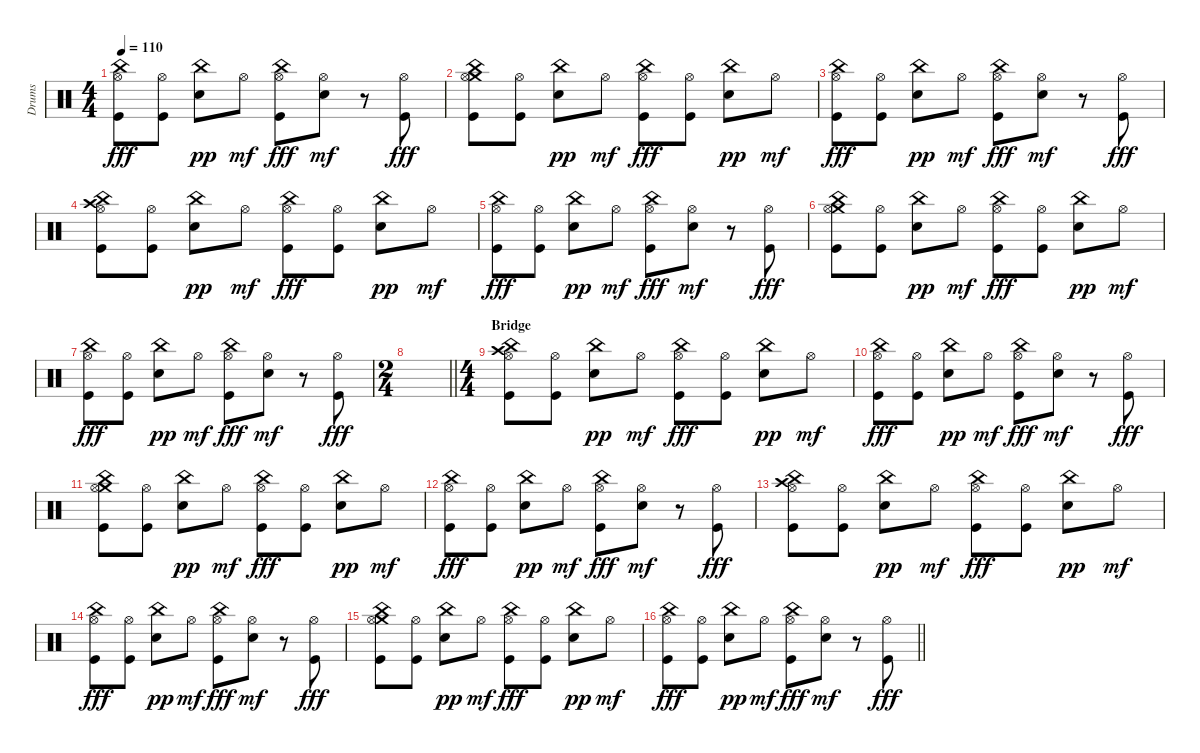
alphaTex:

\track ("Drums" "Drums") {instrument percussion}
\staff {score}
\articulation defaults
\ts (4 4)
\tempo 110
\clef neutral
\ks c
("Hi-Hat (open)" "China (hit)" "Kick (hit)").8{dy fff} ("Hi-Hat (open)" "Kick (hit)").8 ("China (hit)" "Electric Snare (hit)").8{dy pp} "Hi-Hat (open)".8{dy mf} ("Hi-Hat (open)" "China (hit)" "Kick (hit)").8{dy fff} ("Hi-Hat (open)" "Electric Snare (hit)").8{dy mf} r.8 ("Hi-Hat (open)" "Kick (hit)").8{dy fff} |
("Crash medium (hit)" "Hi-Hat (open)" "China (hit)" "Kick (hit)").8 ("Hi-Hat (open)" "Kick (hit)").8 ("China (hit)" "Electric Snare (hit)").8{dy pp} "Hi-Hat (open)".8{dy mf} ("Hi-Hat (open)" "China (hit)" "Kick (hit)").8{dy fff} ("Hi-Hat (open)" "Kick (hit)").8 ("China (hit)" "Electric Snare (hit)").8{dy pp} "Hi-Hat (open)".8{dy mf} |
("Hi-Hat (open)" "China (hit)" "Kick (hit)").8{dy fff} ("Hi-Hat (open)" "Kick (hit)").8 ("China (hit)" "Electric Snare (hit)").8{dy pp} "Hi-Hat (open)".8{dy mf} ("Hi-Hat (open)" "China (hit)" "Kick (hit)").8{dy fff} ("Hi-Hat (open)" "Electric Snare (hit)").8{dy mf} r.8 ("Hi-Hat (open)" "Kick (hit)").8{dy fff} |
("Crash high (hit)" "Hi-Hat (open)" "China (hit)" "Kick (hit)").8 ("Hi-Hat (open)" "Kick (hit)").8 ("China (hit)" "Electric Snare (hit)").8{dy pp} "Hi-Hat (open)".8{dy mf} ("Hi-Hat (open)" "China (hit)" "Kick (hit)").8{dy fff} ("Hi-Hat (open)" "Kick (hit)").8 ("China (hit)" "Electric Snare (hit)").8{dy pp} "Hi-Hat (open)".8{dy mf} |
("Hi-Hat (open)" "China (hit)" "Kick (hit)").8{dy fff} ("Hi-Hat (open)" "Kick (hit)").8 ("China (hit)" "Electric Snare (hit)").8{dy pp} "Hi-Hat (open)".8{dy mf} ("Hi-Hat (open)" "China (hit)" "Kick (hit)").8{dy fff} ("Hi-Hat (open)" "Electric Snare (hit)").8{dy mf} r.8 ("Hi-Hat (open)" "Kick (hit)").8{dy fff} |
("Crash medium (hit)" "Hi-Hat (open)" "China (hit)" "Kick (hit)").8 ("Hi-Hat (open)" "Kick (hit)").8 ("China (hit)" "Electric Snare (hit)").8{dy pp} "Hi-Hat (open)".8{dy mf} ("Hi-Hat (open)" "China (hit)" "Kick (hit)").8{dy fff} ("Hi-Hat (open)" "Kick (hit)").8 ("China (hit)" "Electric Snare (hit)").8{dy pp} "Hi-Hat (open)".8{dy mf} |
("Hi-Hat (open)" "China (hit)" "Kick (hit)").8{dy fff} ("Hi-Hat (open)" "Kick (hit)").8 ("China (hit)" "Electric Snare (hit)").8{dy pp} "Hi-Hat (open)".8{dy mf} ("Hi-Hat (open)" "China (hit)" "Kick (hit)").8{dy fff} ("Hi-Hat (open)" "Electric Snare (hit)").8{dy mf} r.8 ("Hi-Hat (open)" "Kick (hit)").8{dy fff} |
\ts (2 4)
\barLineRight lightlight
|
\ts (4 4)
\section ("" "Bridge")
("Crash high (hit)" "Hi-Hat (open)" "China (hit)" "Kick (hit)").8 ("Hi-Hat (open)" "Kick (hit)").8 ("China (hit)" "Electric Snare (hit)").8{dy pp} "Hi-Hat (open)".8{dy mf} ("Hi-Hat (open)" "China (hit)" "Kick (hit)").8{dy fff} ("Hi-Hat (open)" "Kick (hit)").8 ("China (hit)" "Electric Snare (hit)").8{dy pp} "Hi-Hat (open)".8{dy mf} |
("Hi-Hat (open)" "China (hit)" "Kick (hit)").8{dy fff} ("Hi-Hat (open)" "Kick (hit)").8 ("China (hit)" "Electric Snare (hit)").8{dy pp} "Hi-Hat (open)".8{dy mf} ("Hi-Hat (open)" "China (hit)" "Kick (hit)").8{dy fff} ("Hi-Hat (open)" "Electric Snare (hit)").8{dy mf} r.8 ("Hi-Hat (open)" "Kick (hit)").8{dy fff} |
("Crash medium (hit)" "Hi-Hat (open)" "China (hit)" "Kick (hit)").8 ("Hi-Hat (open)" "Kick (hit)").8 ("China (hit)" "Electric Snare (hit)").8{dy pp} "Hi-Hat (open)".8{dy mf} ("Hi-Hat (open)" "China (hit)" "Kick (hit)").8{dy fff} ("Hi-Hat (open)" "Kick (hit)").8 ("China (hit)" "Electric Snare (hit)").8{dy pp} "Hi-Hat (open)".8{dy mf} |
("Hi-Hat (open)" "China (hit)" "Kick (hit)").8{dy fff} ("Hi-Hat (open)" "Kick (hit)").8 ("China (hit)" "Electric Snare (hit)").8{dy pp} "Hi-Hat (open)".8{dy mf} ("Hi-Hat (open)" "China (hit)" "Kick (hit)").8{dy fff} ("Hi-Hat (open)" "Electric Snare (hit)").8{dy mf} r.8 ("Hi-Hat (open)" "Kick (hit)").8{dy fff} |
("Crash high (hit)" "Hi-Hat (open)" "China (hit)" "Kick (hit)").8 ("Hi-Hat (open)" "Kick (hit)").8 ("China (hit)" "Electric Snare (hit)").8{dy pp} "Hi-Hat (open)".8{dy mf} ("Hi-Hat (open)" "China (hit)" "Kick (hit)").8{dy fff} ("Hi-Hat (open)" "Kick (hit)").8 ("China (hit)" "Electric Snare (hit)").8{dy pp} "Hi-Hat (open)".8{dy mf} |
("Hi-Hat (open)" "China (hit)" "Kick (hit)").8{dy fff} ("Hi-Hat (open)" "Kick (hit)").8 ("China (hit)" "Electric Snare (hit)").8{dy pp} "Hi-Hat (open)".8{dy mf} ("Hi-Hat (open)" "China (hit)" "Kick (hit)").8{dy fff} ("Hi-Hat (open)" "Electric Snare (hit)").8{dy mf} r.8 ("Hi-Hat (open)" "Kick (hit)").8{dy fff} |
("Crash medium (hit)" "Hi-Hat (open)" "China (hit)" "Kick (hit)").8 ("Hi-Hat (open)" "Kick (hit)").8 ("China (hit)" "Electric Snare (hit)").8{dy pp} "Hi-Hat (open)".8{dy mf} ("Hi-Hat (open)" "China (hit)" "Kick (hit)").8{dy fff} ("Hi-Hat (open)" "Kick (hit)").8 ("China (hit)" "Electric Snare (hit)").8{dy pp} "Hi-Hat (open)".8{dy mf} |
\barLineRight lightlight
("Hi-Hat (open)" "China (hit)" "Kick (hit)").8{dy fff} ("Hi-Hat (open)" "Kick (hit)").8 ("China (hit)" "Electric Snare (hit)").8{dy pp} "Hi-Hat (open)".8{dy mf} ("Hi-Hat (open)" "China (hit)" "Kick (hit)").8{dy fff} ("Hi-Hat (open)" "Electric Snare (hit)").8{dy mf} r.8 ("Hi-Hat (open)" "Kick (hit)").8{dy fff}
